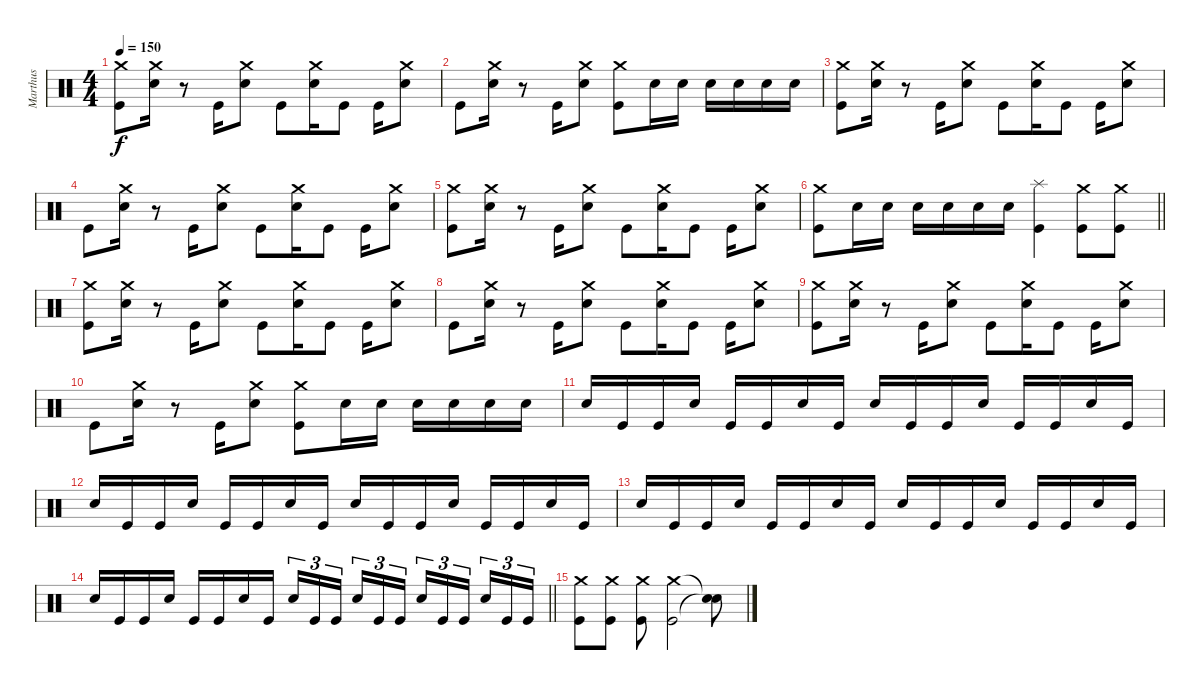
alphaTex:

\track ("Marthus" "Marthus") {instrument percussion}
\staff {score}
\articulation defaults
\ts (4 4)
\tempo 150
\clef neutral
\ks c
("Crash medium (hit)" "Kick (hit)").8{dy f} ("Crash medium (hit)" "Snare (hit) 2").16 r.8 "Kick (hit)".16 ("Crash medium (hit)" "Snare (hit) 2").8 "Kick (hit)".8 ("Crash medium (hit)" "Snare (hit) 2").16 "Kick (hit)".8 "Kick (hit)".16 ("Crash medium (hit)" "Snare (hit) 2").8 |
"Kick (hit)".8 ("Crash medium (hit)" "Snare (hit) 2").16 r.8 "Kick (hit)".16 ("Crash medium (hit)" "Snare (hit) 2").8 ("Crash medium (hit)" "Kick (hit)").8 "Snare (hit) 2".16 "Snare (hit) 2".16 "Snare (hit) 2".16 "Snare (hit) 2".16 "Snare (hit) 2".16 "Snare (hit) 2".16 |
("Crash medium (hit)" "Kick (hit)").8 ("Crash medium (hit)" "Snare (hit) 2").16 r.8 "Kick (hit)".16 ("Crash medium (hit)" "Snare (hit) 2").8 "Kick (hit)".8 ("Crash medium (hit)" "Snare (hit) 2").16 "Kick (hit)".8 "Kick (hit)".16 ("Crash medium (hit)" "Snare (hit) 2").8 |
"Kick (hit)".8 ("Crash medium (hit)" "Snare (hit) 2").16 r.8 "Kick (hit)".16 ("Crash medium (hit)" "Snare (hit) 2").8 "Kick (hit)".8 ("Crash medium (hit)" "Snare (hit) 2").16 "Kick (hit)".8 "Kick (hit)".16 ("Crash medium (hit)" "Snare (hit) 2").8 |
("Crash medium (hit)" "Kick (hit)").8 ("Crash medium (hit)" "Snare (hit) 2").16 r.8 "Kick (hit)".16 ("Crash medium (hit)" "Snare (hit) 2").8 "Kick (hit)".8 ("Crash medium (hit)" "Snare (hit) 2").16 "Kick (hit)".8 "Kick (hit)".16 ("Crash medium (hit)" "Snare (hit) 2").8 |
\barLineRight lightlight
("Crash medium (hit)" "Kick (hit)").8 "Snare (hit) 2".16 "Snare (hit) 2".16 "Snare (hit) 2".16 "Snare (hit) 2".16 "Snare (hit) 2".16 "Snare (hit) 2".16 ("Splash (hit)" "Kick (hit)").4 ("Crash medium (hit)" "Kick (hit)").8 ("Crash medium (hit)" "Kick (hit)").8 |
("Crash medium (hit)" "Kick (hit)").8 ("Crash medium (hit)" "Snare (hit) 2").16 r.8 "Kick (hit)".16 ("Crash medium (hit)" "Snare (hit) 2").8 "Kick (hit)".8 ("Crash medium (hit)" "Snare (hit) 2").16 "Kick (hit)".8 "Kick (hit)".16 ("Crash medium (hit)" "Snare (hit) 2").8 |
"Kick (hit)".8 ("Crash medium (hit)" "Snare (hit) 2").16 r.8 "Kick (hit)".16 ("Crash medium (hit)" "Snare (hit) 2").8 "Kick (hit)".8 ("Crash medium (hit)" "Snare (hit) 2").16 "Kick (hit)".8 "Kick (hit)".16 ("Crash medium (hit)" "Snare (hit) 2").8 |
("Crash medium (hit)" "Kick (hit)").8 ("Crash medium (hit)" "Snare (hit) 2").16 r.8 "Kick (hit)".16 ("Crash medium (hit)" "Snare (hit) 2").8 "Kick (hit)".8 ("Crash medium (hit)" "Snare (hit) 2").16 "Kick (hit)".8 "Kick (hit)".16 ("Crash medium (hit)" "Snare (hit) 2").8 |
"Kick (hit)".8 ("Crash medium (hit)" "Snare (hit) 2").16 r.8 "Kick (hit)".16 ("Crash medium (hit)" "Snare (hit) 2").8 ("Crash medium (hit)" "Kick (hit)").8 "Snare (hit) 2".16 "Snare (hit) 2".16 "Snare (hit) 2".16 "Snare (hit) 2".16 "Snare (hit) 2".16 "Snare (hit) 2".16 |
"Snare (hit) 2".16 "Kick (hit)".16 "Kick (hit)".16 "Snare (hit) 2".16 "Kick (hit)".16 "Kick (hit)".16 "Snare (hit) 2".16 "Kick (hit)".16 "Snare (hit) 2".16 "Kick (hit)".16 "Kick (hit)".16 "Snare (hit) 2".16 "Kick (hit)".16 "Kick (hit)".16 "Snare (hit) 2".16 "Kick (hit)".16 |
"Snare (hit) 2".16 "Kick (hit)".16 "Kick (hit)".16 "Snare (hit) 2".16 "Kick (hit)".16 "Kick (hit)".16 "Snare (hit) 2".16 "Kick (hit)".16 "Snare (hit) 2".16 "Kick (hit)".16 "Kick (hit)".16 "Snare (hit) 2".16 "Kick (hit)".16 "Kick (hit)".16 "Snare (hit) 2".16 "Kick (hit)".16 |
"Snare (hit) 2".16 "Kick (hit)".16 "Kick (hit)".16 "Snare (hit) 2".16 "Kick (hit)".16 "Kick (hit)".16 "Snare (hit) 2".16 "Kick (hit)".16 "Snare (hit) 2".16 "Kick (hit)".16 "Kick (hit)".16 "Snare (hit) 2".16 "Kick (hit)".16 "Kick (hit)".16 "Snare (hit) 2".16 "Kick (hit)".16 |
\barLineRight lightlight "Snare (hit) 2".16 "Kick (hit)".16 "Kick (hit)".16 "Snare (hit) 2".16 "Kick (hit)".16 "Kick (hit)".16 "Snare (hit) 2".16 "Kick (hit)".16 "Snare (hit) 2".16{tu (3 2)} "Kick (hit)".16{tu (3 2)} "Kick (hit)".16{tu (3 2) beam splitsecondary} "Snare (hit) 2".16{tu (3 2)} "Kick (hit)".16{tu (3 2)} "Kick (hit)".16{tu (3 2)} "Snare (hit) 2".16{tu (3 2)} "Kick (hit)".16{tu (3 2)} "Kick (hit)".16{tu (3 2) beam splitsecondary} "Snare (hit) 2".16{tu (3 2)} "Kick (hit)".16{tu (3 2)} "Kick (hit)".16{tu (3 2)}
|
("Crash medium (hit)" "Kick (hit)").8 ("Crash medium (hit)" "Kick (hit)").8 ("Crash medium (hit)" "Kick (hit)").8 ("Crash medium (hit)" "Kick (hit)").2 ("Snare (hit)"{t} "Snare (hit)"{t}).8
